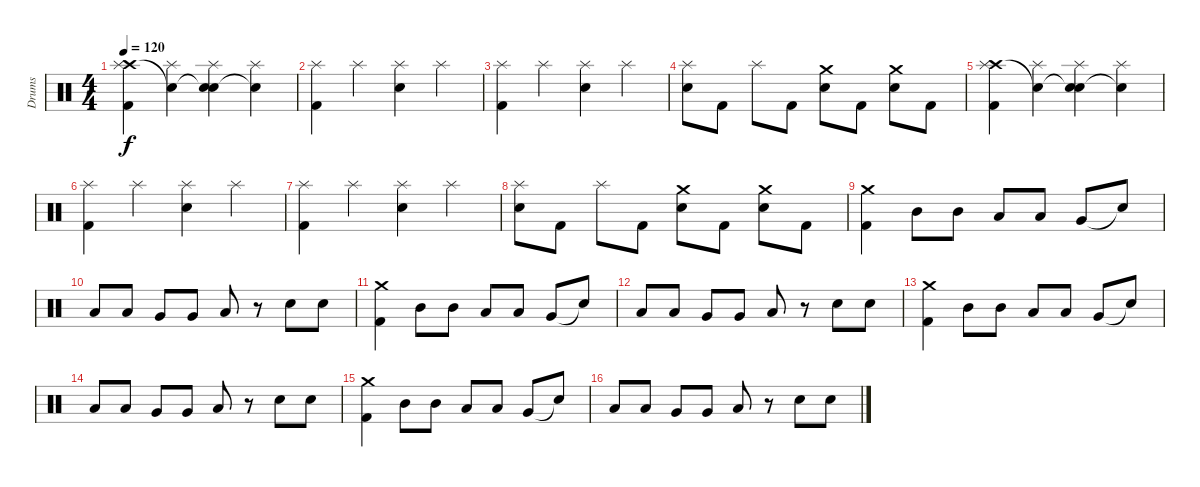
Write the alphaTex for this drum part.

\track ("Drums" "Drums") {instrument percussion}
\staff {score}
\articulation defaults
\ts (4 4)
\tempo 120
\clef neutral
\ks c
("Crash high (hit)" "Splash (hit)" "Kick (hit) 2").4{dy f} ("Snare (hit)"{t} "Splash (hit)").4 ("Snare (hit)"{t} "Splash (hit)" "Snare (hit) 2").4 ("Snare (hit)"{t} "Splash (hit)").4 |
("Splash (hit)" "Kick (hit) 2").4 "Splash (hit)".4 ("Splash (hit)" "Snare (hit) 2").4 "Splash (hit)".4 |
("Splash (hit)" "Kick (hit) 2").4 "Splash (hit)".4 ("Splash (hit)" "Snare (hit) 2").4 "Splash (hit)".4 |
("Splash (hit)" "Snare (hit) 2").8 "Kick (hit) 2".8 "Splash (hit)".8 "Kick (hit) 2".8 ("Crash medium (hit)" "Snare (hit) 2").8 "Kick (hit) 2".8 ("Crash medium (hit)" "Snare (hit) 2").8 "Kick (hit) 2".8 |
("Crash high (hit)" "Splash (hit)" "Kick (hit) 2").4 ("Snare (hit)"{t} "Splash (hit)").4 ("Snare (hit)"{t} "Splash (hit)" "Snare (hit) 2").4 ("Snare (hit)"{t} "Splash (hit)").4 |
("Splash (hit)" "Kick (hit) 2").4 "Splash (hit)".4 ("Splash (hit)" "Snare (hit) 2").4 "Splash (hit)".4 |
("Splash (hit)" "Kick (hit) 2").4 "Splash (hit)".4 ("Splash (hit)" "Snare (hit) 2").4 "Splash (hit)".4 |
("Splash (hit)" "Snare (hit) 2").8 "Kick (hit) 2".8 "Splash (hit)".8 "Kick (hit) 2".8 ("Crash medium (hit)" "Snare (hit) 2").8 "Kick (hit) 2".8 ("Crash medium (hit)" "Snare (hit) 2").8 "Kick (hit) 2".8 |
("Crash medium (hit)" "Kick (hit) 2").4 "Mid Tom (hit)".8 "Mid Tom (hit)".8 "Low Tom (hit)".8 "Low Tom (hit)".8 "Very Low Tom (hit)".8 "Snare (hit)"{t}.8 |
"Low Tom (hit)".8 "Low Tom (hit)".8 "Very Low Tom (hit)".8 "Very Low Tom (hit)".8 "Low Floor Tom (hit)".8 r.8 "Snare (hit) 2".8 "Snare (hit) 2".8 |
("Crash medium (hit)" "Kick (hit) 2").4 "Mid Tom (hit)".8 "Mid Tom (hit)".8 "Low Tom (hit)".8 "Low Tom (hit)".8 "Very Low Tom (hit)".8 "Snare (hit)"{t}.8 |
"Low Tom (hit)".8 "Low Tom (hit)".8 "Very Low Tom (hit)".8 "Very Low Tom (hit)".8 "Low Floor Tom (hit)".8 r.8 "Snare (hit) 2".8 "Snare (hit) 2".8 |
("Crash medium (hit)" "Kick (hit) 2").4 "Mid Tom (hit)".8 "Mid Tom (hit)".8 "Low Tom (hit)".8 "Low Tom (hit)".8 "Very Low Tom (hit)".8 "Snare (hit)"{t}.8 |
"Low Tom (hit)".8 "Low Tom (hit)".8 "Very Low Tom (hit)".8 "Very Low Tom (hit)".8 "Low Floor Tom (hit)".8 r.8 "Snare (hit) 2".8 "Snare (hit) 2".8 |
("Crash medium (hit)" "Kick (hit) 2").4 "Mid Tom (hit)".8 "Mid Tom (hit)".8 "Low Tom (hit)".8 "Low Tom (hit)".8 "Very Low Tom (hit)".8 "Snare (hit)"{t}.8 |
"Low Tom (hit)".8 "Low Tom (hit)".8 "Very Low Tom (hit)".8 "Very Low Tom (hit)".8 "Low Floor Tom (hit)".8 r.8 "Snare (hit) 2".8 "Snare (hit) 2".8
